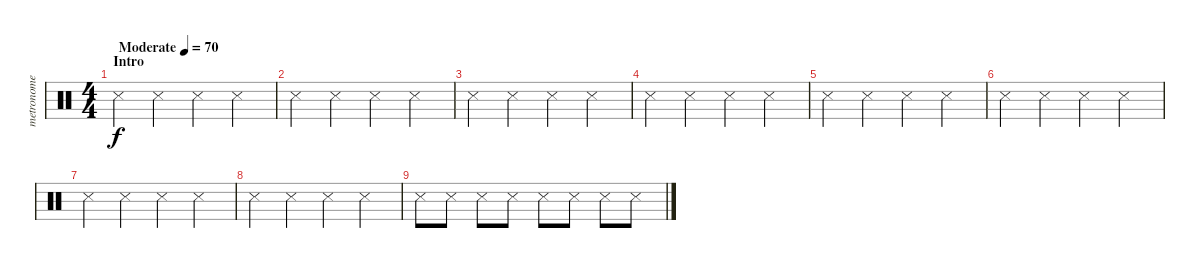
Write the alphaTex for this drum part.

\track ("metronome" "metronome") {instrument percussion}
\staff {score}
\articulation defaults
\ts (4 4)
\section ("" "Intro")
\tempo (70 "Moderate")
\clef neutral
\ks c "Metronome (hit)".4{dy f} "Metronome (hit)".4 "Metronome (hit)".4 "Metronome (hit)".4
|
"Metronome (hit)".4 "Metronome (hit)".4 "Metronome (hit)".4 "Metronome (hit)".4 |
"Metronome (hit)".4 "Metronome (hit)".4 "Metronome (hit)".4 "Metronome (hit)".4 |
"Metronome (hit)".4 "Metronome (hit)".4 "Metronome (hit)".4 "Metronome (hit)".4 |
"Metronome (hit)".4 "Metronome (hit)".4 "Metronome (hit)".4 "Metronome (hit)".4 |
"Metronome (hit)".4 "Metronome (hit)".4 "Metronome (hit)".4 "Metronome (hit)".4 |
"Metronome (hit)".4 "Metronome (hit)".4 "Metronome (hit)".4 "Metronome (hit)".4 |
"Metronome (hit)".4 "Metronome (hit)".4 "Metronome (hit)".4 "Metronome (hit)".4 |
"Metronome (hit)".8 "Metronome (hit)".8 "Metronome (hit)".8 "Metronome (hit)".8 "Metronome (hit)".8 "Metronome (hit)".8 "Metronome (hit)".8 "Metronome (hit)".8
